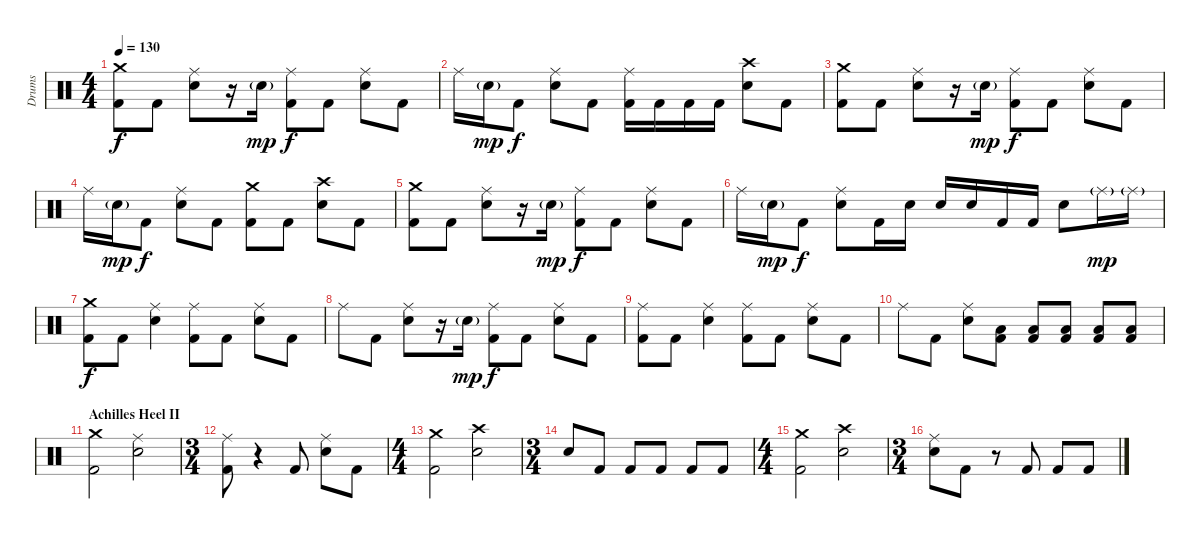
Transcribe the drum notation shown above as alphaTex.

\track ("Drums" "Drums") {instrument percussion}
\staff {score}
\articulation defaults
\ts (4 4)
\tempo 130
\clef neutral
\ks c
("Crash medium (hit)" "Kick (hit) 2").8{dy f} "Kick (hit) 2".8 ("Ride (middle)" "Electric Snare (hit)").8 r.16 "Electric Snare (hit)"{g}.16{dy mp} ("Ride (middle)" "Kick (hit) 2").8{dy f} "Kick (hit) 2".8 ("Ride (middle)" "Electric Snare (hit)").8 "Kick (hit) 2".8 |
"Ride (middle)".16 "Electric Snare (hit)"{g}.16{dy mp} "Kick (hit) 2".8{dy f} ("Ride (middle)" "Electric Snare (hit)").8 "Kick (hit) 2".8 ("Ride (middle)" "Kick (hit) 2").16 "Kick (hit) 2".16 "Kick (hit) 2".16 "Kick (hit) 2".16 ("Crash high (hit)" "Electric Snare (hit)").8 "Kick (hit) 2".8 |
("Crash medium (hit)" "Kick (hit) 2").8 "Kick (hit) 2".8 ("Ride (middle)" "Electric Snare (hit)").8 r.16 "Electric Snare (hit)"{g}.16{dy mp} ("Ride (middle)" "Kick (hit) 2").8{dy f} "Kick (hit) 2".8 ("Ride (middle)" "Electric Snare (hit)").8 "Kick (hit) 2".8 |
"Ride (middle)".16 "Electric Snare (hit)"{g}.16{dy mp} "Kick (hit) 2".8{dy f} ("Ride (middle)" "Electric Snare (hit)").8 "Kick (hit) 2".8 ("Crash medium (hit)" "Kick (hit) 2").8 "Kick (hit) 2".8 ("Crash high (hit)" "Electric Snare (hit)").8 "Kick (hit) 2".8 |
("Crash medium (hit)" "Kick (hit) 2").8 "Kick (hit) 2".8 ("Ride (middle)" "Electric Snare (hit)").8 r.16 "Electric Snare (hit)"{g}.16{dy mp} ("Ride (middle)" "Kick (hit) 2").8{dy f} "Kick (hit) 2".8 ("Ride (middle)" "Electric Snare (hit)").8 "Kick (hit) 2".8 |
"Ride (middle)".16 "Electric Snare (hit)"{g}.16{dy mp} "Kick (hit) 2".8{dy f} ("Ride (middle)" "Electric Snare (hit)").8 "Kick (hit) 2".16 "Electric Snare (hit)".16 "Electric Snare (hit)".16 "Electric Snare (hit)".16 "Kick (hit) 2".16 "Kick (hit) 2".16 "Electric Snare (hit)".8 "Ride (middle)"{g}.16{dy mp} "Ride (middle)"{g}.16 |
("Crash medium (hit)" "Kick (hit) 2").8{dy f} "Kick (hit) 2".8 ("Ride (middle)" "Electric Snare (hit)").4 ("Ride (middle)" "Kick (hit) 2").8 "Kick (hit) 2".8 ("Ride (middle)" "Electric Snare (hit)").8 "Kick (hit) 2".8 |
"Ride (middle)".8 "Kick (hit) 2".8 ("Ride (middle)" "Electric Snare (hit)").8 r.16 "Electric Snare (hit)"{g}.16{dy mp} ("Ride (middle)" "Kick (hit) 2").8{dy f} "Kick (hit) 2".8 ("Ride (middle)" "Electric Snare (hit)").8 "Kick (hit) 2".8 |
("Ride (middle)" "Kick (hit) 2").8 "Kick (hit) 2".8 ("Ride (middle)" "Electric Snare (hit)").4 ("Ride (middle)" "Kick (hit) 2").8 "Kick (hit) 2".8 ("Ride (middle)" "Electric Snare (hit)").8 "Kick (hit) 2".8 |
"Ride (middle)".8 "Kick (hit) 2".8 ("Ride (middle)" "Electric Snare (hit)").8 ("Low Floor Tom (hit)" "Kick (hit) 2").8 ("Low Floor Tom (hit)" "Kick (hit) 2").8 ("Low Floor Tom (hit)" "Kick (hit) 2").8 ("Low Floor Tom (hit)" "Kick (hit) 2").8 ("Low Floor Tom (hit)" "Kick (hit) 2").8 |
\section ("" "Achilles Heel II")
("Crash medium (hit)" "Kick (hit) 2").2 ("Ride (middle)" "Electric Snare (hit)").2 |
\ts (3 4)
("Ride (middle)" "Kick (hit) 2").8 r.4 "Kick (hit) 2".8 ("Ride (middle)" "Electric Snare (hit)").8 "Kick (hit) 2".8 |
\ts (4 4)
("Crash medium (hit)" "Kick (hit) 2").2 ("Crash high (hit)" "Electric Snare (hit)").2 |
\ts (3 4)
"Electric Snare (hit)".8 "Kick (hit) 2".8 "Kick (hit) 2".8 "Kick (hit) 2".8 "Kick (hit) 2".8 "Kick (hit) 2".8 |
\ts (4 4)
("Crash medium (hit)" "Kick (hit) 2").2 ("Crash high (hit)" "Electric Snare (hit)").2 |
\ts (3 4)
("Ride (middle)" "Electric Snare (hit)").8 "Kick (hit) 2".8 r.8 "Kick (hit) 2".8 "Kick (hit) 2".8 "Kick (hit) 2".8
